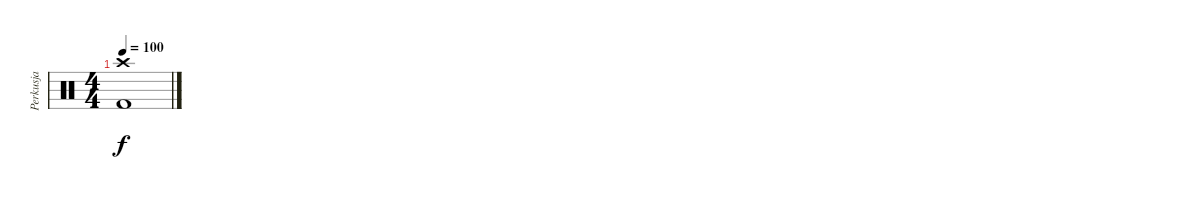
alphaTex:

\track ("Perkusja" "Perkusja") {instrument percussion}
\staff {score}
\articulation defaults
\ts (4 4)
\tempo 100
\clef neutral
\ks c
("Kick (hit) 2" "Crash high (hit)").1{dy f}
